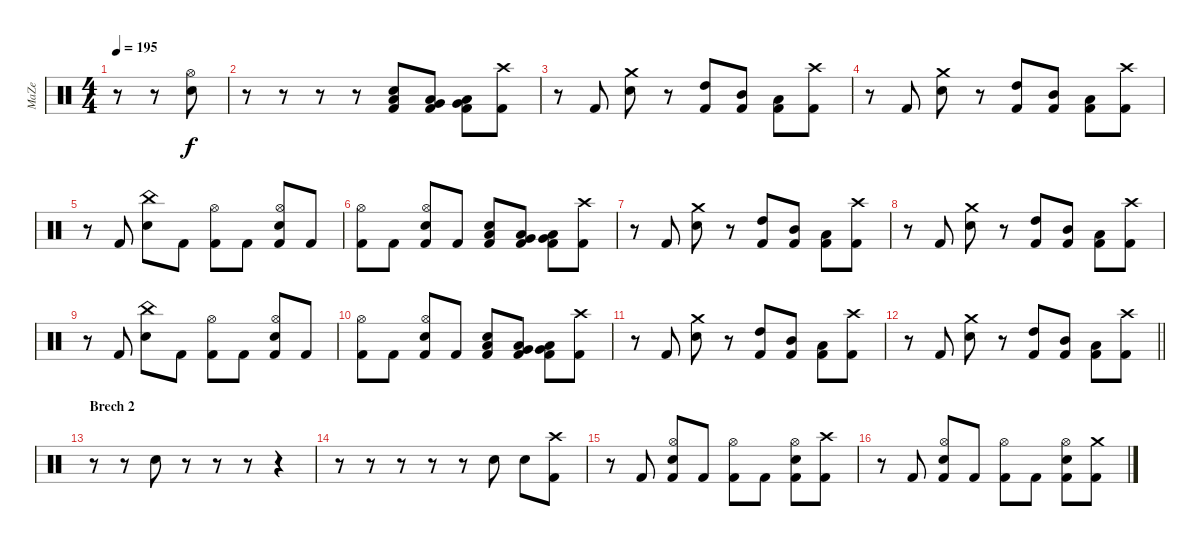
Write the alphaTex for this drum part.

\track ("MaZe" "MaZe") {instrument percussion}
\staff {score}
\articulation defaults
\ts (4 4)
\tempo 195
\clef neutral
\ks c
r.8{dy f} r.8 ("Snare (hit) 2" "Hi-Hat (open)").8 |
r.8 r.8 r.8 r.8 ("Snare (hit) 2" "Low Floor Tom (hit)" "Kick (hit) 2").8 ("Low Tom (hit)" "Very Low Tom (hit)" "Kick (hit) 2").8 ("Low Tom (hit)" "Very Low Tom (hit)" "Kick (hit) 2").8 ("Crash high (hit)" "Kick (hit) 2").8 |
r.8 "Kick (hit) 2".8 ("Crash medium (hit)" "Snare (hit) 2").8 r.8 ("High Tom (hit)" "Kick (hit) 2").8 ("Mid Tom (hit)" "Kick (hit) 2").8 ("Low Tom (hit)" "Kick (hit) 2").8 ("Crash high (hit)" "Kick (hit) 2").8 |
r.8 "Kick (hit) 2".8 ("Crash medium (hit)" "Snare (hit) 2").8 r.8 ("High Tom (hit)" "Kick (hit) 2").8 ("Mid Tom (hit)" "Kick (hit) 2").8 ("Low Tom (hit)" "Kick (hit) 2").8 ("Crash high (hit)" "Kick (hit) 2").8 |
r.8 "Kick (hit) 2".8 ("Snare (hit) 2" "China (hit)").8 "Kick (hit) 2".8 ("Hi-Hat (open)" "Kick (hit) 2").8 "Kick (hit) 2".8 ("Snare (hit) 2" "Hi-Hat (open)" "Kick (hit) 2").8 "Kick (hit) 2".8 |
("Hi-Hat (open)" "Kick (hit) 2").8 "Kick (hit) 2".8 ("Snare (hit) 2" "Hi-Hat (open)" "Kick (hit) 2").8 "Kick (hit) 2".8 ("Snare (hit) 2" "Low Floor Tom (hit)" "Kick (hit) 2").8 ("Low Tom (hit)" "Very Low Tom (hit)" "Kick (hit) 2").8 ("Low Tom (hit)" "Very Low Tom (hit)" "Kick (hit) 2").8 ("Crash high (hit)" "Kick (hit) 2").8 |
r.8 "Kick (hit) 2".8 ("Crash medium (hit)" "Snare (hit) 2").8 r.8 ("High Tom (hit)" "Kick (hit) 2").8 ("Mid Tom (hit)" "Kick (hit) 2").8 ("Low Tom (hit)" "Kick (hit) 2").8 ("Crash high (hit)" "Kick (hit) 2").8 |
r.8 "Kick (hit) 2".8 ("Crash medium (hit)" "Snare (hit) 2").8 r.8 ("High Tom (hit)" "Kick (hit) 2").8 ("Mid Tom (hit)" "Kick (hit) 2").8 ("Low Tom (hit)" "Kick (hit) 2").8 ("Crash high (hit)" "Kick (hit) 2").8 |
r.8 "Kick (hit) 2".8 ("Snare (hit) 2" "China (hit)").8 "Kick (hit) 2".8 ("Hi-Hat (open)" "Kick (hit) 2").8 "Kick (hit) 2".8 ("Snare (hit) 2" "Hi-Hat (open)" "Kick (hit) 2").8 "Kick (hit) 2".8 |
("Hi-Hat (open)" "Kick (hit) 2").8 "Kick (hit) 2".8 ("Snare (hit) 2" "Hi-Hat (open)" "Kick (hit) 2").8 "Kick (hit) 2".8 ("Snare (hit) 2" "Low Floor Tom (hit)" "Kick (hit) 2").8 ("Low Tom (hit)" "Very Low Tom (hit)" "Kick (hit) 2").8 ("Low Tom (hit)" "Very Low Tom (hit)" "Kick (hit) 2").8 ("Crash high (hit)" "Kick (hit) 2").8 |
r.8 "Kick (hit) 2".8 ("Crash medium (hit)" "Snare (hit) 2").8 r.8 ("High Tom (hit)" "Kick (hit) 2").8 ("Mid Tom (hit)" "Kick (hit) 2").8 ("Low Tom (hit)" "Kick (hit) 2").8 ("Crash high (hit)" "Kick (hit) 2").8 |
\barLineRight lightlight
r.8 "Kick (hit) 2".8 ("Crash medium (hit)" "Snare (hit) 2").8 r.8 ("High Tom (hit)" "Kick (hit) 2").8 ("Mid Tom (hit)" "Kick (hit) 2").8 ("Low Tom (hit)" "Kick (hit) 2").8 ("Crash high (hit)" "Kick (hit) 2").8 |
\section ("" "Brech 2")
r.8 r.8 "Snare (hit) 2".8 r.8 r.8 r.8 r.4 |
r.8 r.8 r.8 r.8 r.8 "Snare (hit) 2".8 "Snare (hit) 2".8 ("Crash high (hit)" "Kick (hit) 2").8 |
r.8 "Kick (hit) 2".8 ("Snare (hit) 2" "Hi-Hat (open)" "Kick (hit) 2").8 "Kick (hit) 2".8 ("Hi-Hat (open)" "Kick (hit) 2").8 "Kick (hit) 2".8 ("Snare (hit) 2" "Hi-Hat (open)" "Kick (hit) 2").8 ("Crash high (hit)" "Kick (hit) 2").8 |
r.8 "Kick (hit) 2".8 ("Snare (hit) 2" "Hi-Hat (open)" "Kick (hit) 2").8 "Kick (hit) 2".8 ("Hi-Hat (open)" "Kick (hit) 2").8 "Kick (hit) 2".8 ("Snare (hit) 2" "Hi-Hat (open)" "Kick (hit) 2").8 ("Crash medium (hit)" "Kick (hit) 2").8
